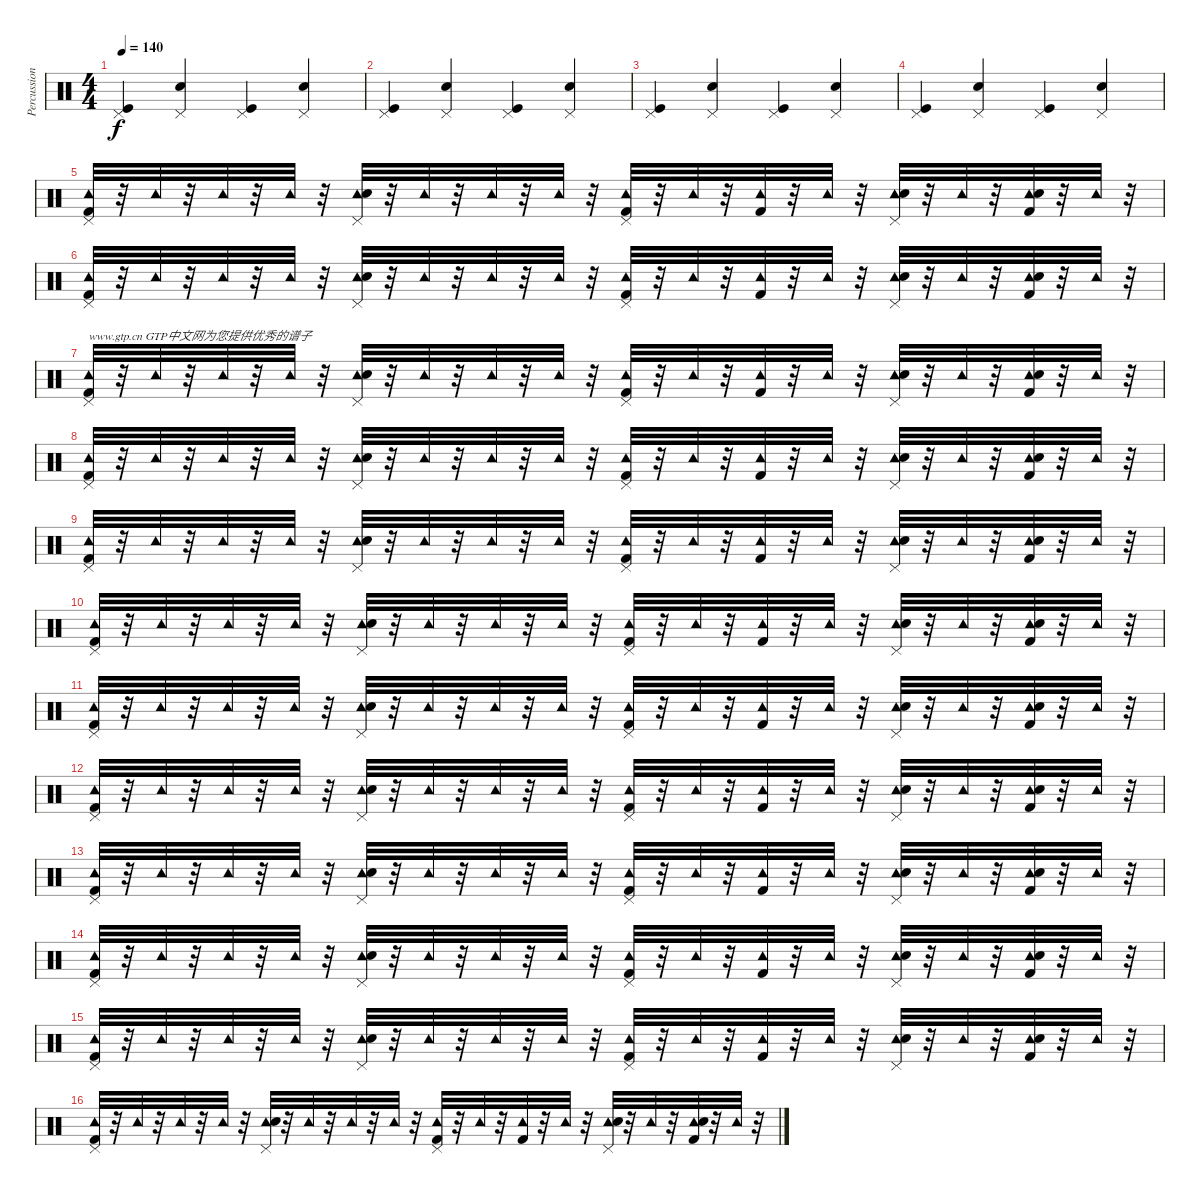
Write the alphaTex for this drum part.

\track ("Percussion" "Percussion") {instrument percussion}
\staff {score}
\articulation defaults
\ts (4 4)
\tempo 140
\clef neutral
\ks c
("Pedal Hi-Hat (hit)" "Kick (hit)").4{dy f} ("Pedal Hi-Hat (hit)" "Snare (hit) 2").4 ("Pedal Hi-Hat (hit)" "Kick (hit)").4 ("Pedal Hi-Hat (hit)" "Snare (hit) 2").4 |
("Pedal Hi-Hat (hit)" "Kick (hit)").4 ("Pedal Hi-Hat (hit)" "Snare (hit) 2").4 ("Pedal Hi-Hat (hit)" "Kick (hit)").4 ("Pedal Hi-Hat (hit)" "Snare (hit) 2").4 |
("Pedal Hi-Hat (hit)" "Kick (hit)").4 ("Pedal Hi-Hat (hit)" "Snare (hit) 2").4 ("Pedal Hi-Hat (hit)" "Kick (hit)").4 ("Pedal Hi-Hat (hit)" "Snare (hit) 2").4 |
("Pedal Hi-Hat (hit)" "Kick (hit)").4 ("Pedal Hi-Hat (hit)" "Snare (hit) 2").4 ("Pedal Hi-Hat (hit)" "Kick (hit)").4 ("Pedal Hi-Hat (hit)" "Snare (hit) 2").4 |
("Pedal Hi-Hat (hit)" "Tambourine (hit)" "Kick (hit) 2").32 r.32 "Tambourine (hit)".32 r.32 "Tambourine (hit)".32 r.32 "Tambourine (hit)".32 r.32 ("Pedal Hi-Hat (hit)" "Tambourine (hit)" "Snare (hit) 2").32 r.32 "Tambourine (hit)".32 r.32 "Tambourine (hit)".32 r.32 "Tambourine (hit)".32 r.32 ("Pedal Hi-Hat (hit)" "Tambourine (hit)" "Kick (hit) 2").32 r.32 "Tambourine (hit)".32 r.32 ("Tambourine (hit)" "Kick (hit) 2").32 r.32 "Tambourine (hit)".32 r.32 ("Pedal Hi-Hat (hit)" "Tambourine (hit)" "Snare (hit) 2").32 r.32 "Tambourine (hit)".32 r.32 ("Tambourine (hit)" "Snare (hit) 2" "Kick (hit) 2").32 r.32 "Tambourine (hit)".32 r.32 |
("Pedal Hi-Hat (hit)" "Tambourine (hit)" "Kick (hit) 2").32 r.32 "Tambourine (hit)".32 r.32 "Tambourine (hit)".32 r.32 "Tambourine (hit)".32 r.32 ("Pedal Hi-Hat (hit)" "Tambourine (hit)" "Snare (hit) 2").32 r.32 "Tambourine (hit)".32 r.32 "Tambourine (hit)".32 r.32 "Tambourine (hit)".32 r.32 ("Pedal Hi-Hat (hit)" "Tambourine (hit)" "Kick (hit) 2").32 r.32 "Tambourine (hit)".32 r.32 ("Tambourine (hit)" "Kick (hit) 2").32 r.32 "Tambourine (hit)".32 r.32 ("Pedal Hi-Hat (hit)" "Tambourine (hit)" "Snare (hit) 2").32 r.32 "Tambourine (hit)".32 r.32 ("Tambourine (hit)" "Snare (hit) 2" "Kick (hit) 2").32 r.32 "Tambourine (hit)".32 r.32 |
("Pedal Hi-Hat (hit)" "Tambourine (hit)" "Kick (hit) 2").32{txt "www.gtp.cn GTP中文网为您提供优秀的谱子"} r.32 "Tambourine (hit)".32 r.32 "Tambourine (hit)".32 r.32 "Tambourine (hit)".32 r.32 ("Pedal Hi-Hat (hit)" "Tambourine (hit)" "Snare (hit) 2").32 r.32 "Tambourine (hit)".32 r.32 "Tambourine (hit)".32 r.32 "Tambourine (hit)".32 r.32 ("Pedal Hi-Hat (hit)" "Tambourine (hit)" "Kick (hit) 2").32 r.32 "Tambourine (hit)".32 r.32 ("Tambourine (hit)" "Kick (hit) 2").32 r.32 "Tambourine (hit)".32 r.32 ("Pedal Hi-Hat (hit)" "Tambourine (hit)" "Snare (hit) 2").32 r.32 "Tambourine (hit)".32 r.32 ("Tambourine (hit)" "Snare (hit) 2" "Kick (hit) 2").32 r.32 "Tambourine (hit)".32 r.32 |
("Pedal Hi-Hat (hit)" "Tambourine (hit)" "Kick (hit) 2").32 r.32 "Tambourine (hit)".32 r.32 "Tambourine (hit)".32 r.32 "Tambourine (hit)".32 r.32 ("Pedal Hi-Hat (hit)" "Tambourine (hit)" "Snare (hit) 2").32 r.32 "Tambourine (hit)".32 r.32 "Tambourine (hit)".32 r.32 "Tambourine (hit)".32 r.32 ("Pedal Hi-Hat (hit)" "Tambourine (hit)" "Kick (hit) 2").32 r.32 "Tambourine (hit)".32 r.32 ("Tambourine (hit)" "Kick (hit) 2").32 r.32 "Tambourine (hit)".32 r.32 ("Pedal Hi-Hat (hit)" "Tambourine (hit)" "Snare (hit) 2").32 r.32 "Tambourine (hit)".32 r.32 ("Tambourine (hit)" "Snare (hit) 2" "Kick (hit) 2").32 r.32 "Tambourine (hit)".32 r.32 |
("Pedal Hi-Hat (hit)" "Tambourine (hit)" "Kick (hit) 2").32 r.32 "Tambourine (hit)".32 r.32 "Tambourine (hit)".32 r.32 "Tambourine (hit)".32 r.32 ("Pedal Hi-Hat (hit)" "Tambourine (hit)" "Snare (hit) 2").32 r.32 "Tambourine (hit)".32 r.32 "Tambourine (hit)".32 r.32 "Tambourine (hit)".32 r.32 ("Pedal Hi-Hat (hit)" "Tambourine (hit)" "Kick (hit) 2").32 r.32 "Tambourine (hit)".32 r.32 ("Tambourine (hit)" "Kick (hit) 2").32 r.32 "Tambourine (hit)".32 r.32 ("Pedal Hi-Hat (hit)" "Tambourine (hit)" "Snare (hit) 2").32 r.32 "Tambourine (hit)".32 r.32 ("Tambourine (hit)" "Snare (hit) 2" "Kick (hit) 2").32 r.32 "Tambourine (hit)".32 r.32 |
("Pedal Hi-Hat (hit)" "Tambourine (hit)" "Kick (hit) 2").32 r.32 "Tambourine (hit)".32 r.32 "Tambourine (hit)".32 r.32 "Tambourine (hit)".32 r.32 ("Pedal Hi-Hat (hit)" "Tambourine (hit)" "Snare (hit) 2").32 r.32 "Tambourine (hit)".32 r.32 "Tambourine (hit)".32 r.32 "Tambourine (hit)".32 r.32 ("Pedal Hi-Hat (hit)" "Tambourine (hit)" "Kick (hit) 2").32 r.32 "Tambourine (hit)".32 r.32 ("Tambourine (hit)" "Kick (hit) 2").32 r.32 "Tambourine (hit)".32 r.32 ("Pedal Hi-Hat (hit)" "Tambourine (hit)" "Snare (hit) 2").32 r.32 "Tambourine (hit)".32 r.32 ("Tambourine (hit)" "Snare (hit) 2" "Kick (hit) 2").32 r.32 "Tambourine (hit)".32 r.32 |
("Pedal Hi-Hat (hit)" "Tambourine (hit)" "Kick (hit) 2").32 r.32 "Tambourine (hit)".32 r.32 "Tambourine (hit)".32 r.32 "Tambourine (hit)".32 r.32 ("Pedal Hi-Hat (hit)" "Tambourine (hit)" "Snare (hit) 2").32 r.32 "Tambourine (hit)".32 r.32 "Tambourine (hit)".32 r.32 "Tambourine (hit)".32 r.32 ("Pedal Hi-Hat (hit)" "Tambourine (hit)" "Kick (hit) 2").32 r.32 "Tambourine (hit)".32 r.32 ("Tambourine (hit)" "Kick (hit) 2").32 r.32 "Tambourine (hit)".32 r.32 ("Pedal Hi-Hat (hit)" "Tambourine (hit)" "Snare (hit) 2").32 r.32 "Tambourine (hit)".32 r.32 ("Tambourine (hit)" "Snare (hit) 2" "Kick (hit) 2").32 r.32 "Tambourine (hit)".32 r.32 |
("Pedal Hi-Hat (hit)" "Tambourine (hit)" "Kick (hit) 2").32 r.32 "Tambourine (hit)".32 r.32 "Tambourine (hit)".32 r.32 "Tambourine (hit)".32 r.32 ("Pedal Hi-Hat (hit)" "Tambourine (hit)" "Snare (hit) 2").32 r.32 "Tambourine (hit)".32 r.32 "Tambourine (hit)".32 r.32 "Tambourine (hit)".32 r.32 ("Pedal Hi-Hat (hit)" "Tambourine (hit)" "Kick (hit) 2").32 r.32 "Tambourine (hit)".32 r.32 ("Tambourine (hit)" "Kick (hit) 2").32 r.32 "Tambourine (hit)".32 r.32 ("Pedal Hi-Hat (hit)" "Tambourine (hit)" "Snare (hit) 2").32 r.32 "Tambourine (hit)".32 r.32 ("Tambourine (hit)" "Snare (hit) 2" "Kick (hit) 2").32 r.32 "Tambourine (hit)".32 r.32 |
("Pedal Hi-Hat (hit)" "Tambourine (hit)" "Kick (hit) 2").32 r.32 "Tambourine (hit)".32 r.32 "Tambourine (hit)".32 r.32 "Tambourine (hit)".32 r.32 ("Pedal Hi-Hat (hit)" "Tambourine (hit)" "Snare (hit) 2").32 r.32 "Tambourine (hit)".32 r.32 "Tambourine (hit)".32 r.32 "Tambourine (hit)".32 r.32 ("Pedal Hi-Hat (hit)" "Tambourine (hit)" "Kick (hit) 2").32 r.32 "Tambourine (hit)".32 r.32 ("Tambourine (hit)" "Kick (hit) 2").32 r.32 "Tambourine (hit)".32 r.32 ("Pedal Hi-Hat (hit)" "Tambourine (hit)" "Snare (hit) 2").32 r.32 "Tambourine (hit)".32 r.32 ("Tambourine (hit)" "Snare (hit) 2" "Kick (hit) 2").32 r.32 "Tambourine (hit)".32 r.32 |
("Pedal Hi-Hat (hit)" "Tambourine (hit)" "Kick (hit) 2").32 r.32 "Tambourine (hit)".32 r.32 "Tambourine (hit)".32 r.32 "Tambourine (hit)".32 r.32 ("Pedal Hi-Hat (hit)" "Tambourine (hit)" "Snare (hit) 2").32 r.32 "Tambourine (hit)".32 r.32 "Tambourine (hit)".32 r.32 "Tambourine (hit)".32 r.32 ("Pedal Hi-Hat (hit)" "Tambourine (hit)" "Kick (hit) 2").32 r.32 "Tambourine (hit)".32 r.32 ("Tambourine (hit)" "Kick (hit) 2").32 r.32 "Tambourine (hit)".32 r.32 ("Pedal Hi-Hat (hit)" "Tambourine (hit)" "Snare (hit) 2").32 r.32 "Tambourine (hit)".32 r.32 ("Tambourine (hit)" "Snare (hit) 2" "Kick (hit) 2").32 r.32 "Tambourine (hit)".32 r.32 |
("Pedal Hi-Hat (hit)" "Tambourine (hit)" "Kick (hit) 2").32 r.32 "Tambourine (hit)".32 r.32 "Tambourine (hit)".32 r.32 "Tambourine (hit)".32 r.32 ("Pedal Hi-Hat (hit)" "Tambourine (hit)" "Snare (hit) 2").32 r.32 "Tambourine (hit)".32 r.32 "Tambourine (hit)".32 r.32 "Tambourine (hit)".32 r.32 ("Pedal Hi-Hat (hit)" "Tambourine (hit)" "Kick (hit) 2").32 r.32 "Tambourine (hit)".32 r.32 ("Tambourine (hit)" "Kick (hit) 2").32 r.32 "Tambourine (hit)".32 r.32 ("Pedal Hi-Hat (hit)" "Tambourine (hit)" "Snare (hit) 2").32 r.32 "Tambourine (hit)".32 r.32 ("Tambourine (hit)" "Snare (hit) 2" "Kick (hit) 2").32 r.32 "Tambourine (hit)".32 r.32 |
("Pedal Hi-Hat (hit)" "Tambourine (hit)" "Kick (hit) 2").32 r.32 "Tambourine (hit)".32 r.32 "Tambourine (hit)".32 r.32 "Tambourine (hit)".32 r.32 ("Pedal Hi-Hat (hit)" "Tambourine (hit)" "Snare (hit) 2").32 r.32 "Tambourine (hit)".32 r.32 "Tambourine (hit)".32 r.32 "Tambourine (hit)".32 r.32 ("Pedal Hi-Hat (hit)" "Tambourine (hit)" "Kick (hit) 2").32 r.32 "Tambourine (hit)".32 r.32 ("Tambourine (hit)" "Kick (hit) 2").32 r.32 "Tambourine (hit)".32 r.32 ("Pedal Hi-Hat (hit)" "Tambourine (hit)" "Snare (hit) 2").32 r.32 "Tambourine (hit)".32 r.32 ("Tambourine (hit)" "Snare (hit) 2" "Kick (hit) 2").32 r.32 "Tambourine (hit)".32 r.32
